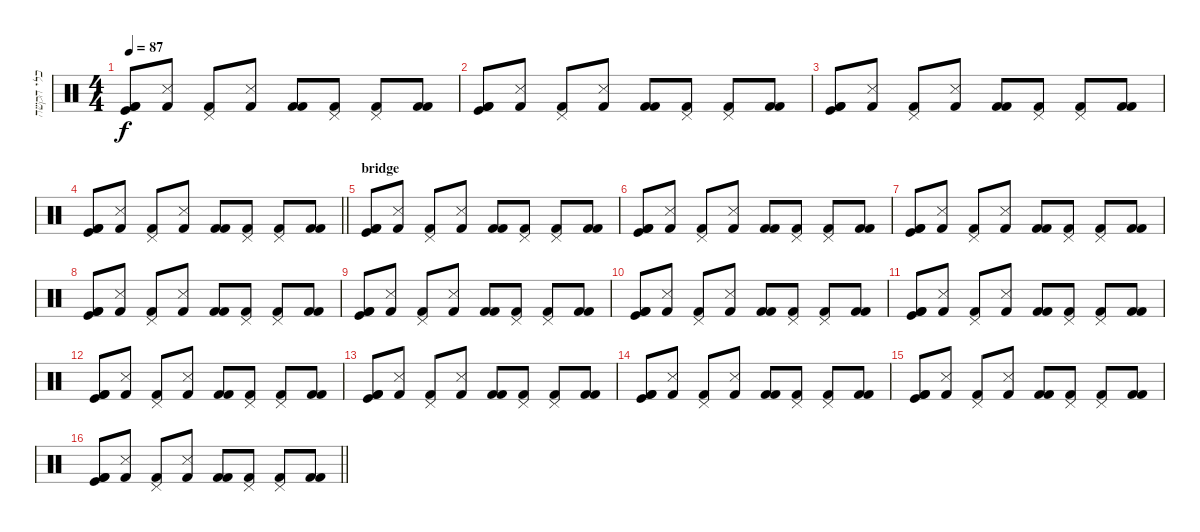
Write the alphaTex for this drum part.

\track ("כלי הקשה" "כלי הקשה") {instrument percussion}
\staff {score}
\articulation defaults
\ts (4 4)
\tempo 87
\clef neutral
\ks c
("Kick (hit) 2" "Kick (hit)" "Kick (hit) 2").8{dy f} ("Snare (side stick) 3" "Kick (hit) 2").8 ("Pedal Hi-Hat (hit)" "Kick (hit) 2").8 ("Snare (side stick) 3" "Kick (hit) 2").8 ("Kick (hit) 2" "Kick (hit) 2").8 ("Pedal Hi-Hat (hit)" "Kick (hit) 2").8 ("Pedal Hi-Hat (hit)" "Kick (hit) 2").8 ("Kick (hit) 2" "Kick (hit) 2").8 |
("Kick (hit) 2" "Kick (hit)" "Kick (hit) 2").8 ("Snare (side stick) 3" "Kick (hit) 2").8 ("Pedal Hi-Hat (hit)" "Kick (hit) 2").8 ("Snare (side stick) 3" "Kick (hit) 2").8 ("Kick (hit) 2" "Kick (hit) 2").8 ("Pedal Hi-Hat (hit)" "Kick (hit) 2").8 ("Pedal Hi-Hat (hit)" "Kick (hit) 2").8 ("Kick (hit) 2" "Kick (hit) 2").8 |
("Kick (hit) 2" "Kick (hit)" "Kick (hit) 2").8 ("Snare (side stick) 3" "Kick (hit) 2").8 ("Pedal Hi-Hat (hit)" "Kick (hit) 2").8 ("Snare (side stick) 3" "Kick (hit) 2").8 ("Kick (hit) 2" "Kick (hit) 2").8 ("Pedal Hi-Hat (hit)" "Kick (hit) 2").8 ("Pedal Hi-Hat (hit)" "Kick (hit) 2").8 ("Kick (hit) 2" "Kick (hit) 2").8 |
\barLineRight lightlight
("Kick (hit) 2" "Kick (hit)" "Kick (hit) 2").8 ("Snare (side stick) 3" "Kick (hit) 2").8 ("Pedal Hi-Hat (hit)" "Kick (hit) 2").8 ("Snare (side stick) 3" "Kick (hit) 2").8 ("Kick (hit) 2" "Kick (hit) 2").8 ("Pedal Hi-Hat (hit)" "Kick (hit) 2").8 ("Pedal Hi-Hat (hit)" "Kick (hit) 2").8 ("Kick (hit) 2" "Kick (hit) 2").8 |
\section ("" "bridge")
("Kick (hit) 2" "Kick (hit)" "Kick (hit) 2").8 ("Snare (side stick) 3" "Kick (hit) 2").8 ("Pedal Hi-Hat (hit)" "Kick (hit) 2").8 ("Snare (side stick) 3" "Kick (hit) 2").8 ("Kick (hit) 2" "Kick (hit) 2").8 ("Pedal Hi-Hat (hit)" "Kick (hit) 2").8 ("Pedal Hi-Hat (hit)" "Kick (hit) 2").8 ("Kick (hit) 2" "Kick (hit) 2").8 |
("Kick (hit) 2" "Kick (hit)" "Kick (hit) 2").8 ("Snare (side stick) 3" "Kick (hit) 2").8 ("Pedal Hi-Hat (hit)" "Kick (hit) 2").8 ("Snare (side stick) 3" "Kick (hit) 2").8 ("Kick (hit) 2" "Kick (hit) 2").8 ("Pedal Hi-Hat (hit)" "Kick (hit) 2").8 ("Pedal Hi-Hat (hit)" "Kick (hit) 2").8 ("Kick (hit) 2" "Kick (hit) 2").8 |
("Kick (hit) 2" "Kick (hit)" "Kick (hit) 2").8 ("Snare (side stick) 3" "Kick (hit) 2").8 ("Pedal Hi-Hat (hit)" "Kick (hit) 2").8 ("Snare (side stick) 3" "Kick (hit) 2").8 ("Kick (hit) 2" "Kick (hit) 2").8 ("Pedal Hi-Hat (hit)" "Kick (hit) 2").8 ("Pedal Hi-Hat (hit)" "Kick (hit) 2").8 ("Kick (hit) 2" "Kick (hit) 2").8 |
("Kick (hit) 2" "Kick (hit)" "Kick (hit) 2").8 ("Snare (side stick) 3" "Kick (hit) 2").8 ("Pedal Hi-Hat (hit)" "Kick (hit) 2").8 ("Snare (side stick) 3" "Kick (hit) 2").8 ("Kick (hit) 2" "Kick (hit) 2").8 ("Pedal Hi-Hat (hit)" "Kick (hit) 2").8 ("Pedal Hi-Hat (hit)" "Kick (hit) 2").8 ("Kick (hit) 2" "Kick (hit) 2").8 |
("Kick (hit) 2" "Kick (hit)" "Kick (hit) 2").8 ("Snare (side stick) 3" "Kick (hit) 2").8 ("Pedal Hi-Hat (hit)" "Kick (hit) 2").8 ("Snare (side stick) 3" "Kick (hit) 2").8 ("Kick (hit) 2" "Kick (hit) 2").8 ("Pedal Hi-Hat (hit)" "Kick (hit) 2").8 ("Pedal Hi-Hat (hit)" "Kick (hit) 2").8 ("Kick (hit) 2" "Kick (hit) 2").8 |
("Kick (hit) 2" "Kick (hit)" "Kick (hit) 2").8 ("Snare (side stick) 3" "Kick (hit) 2").8 ("Pedal Hi-Hat (hit)" "Kick (hit) 2").8 ("Snare (side stick) 3" "Kick (hit) 2").8 ("Kick (hit) 2" "Kick (hit) 2").8 ("Pedal Hi-Hat (hit)" "Kick (hit) 2").8 ("Pedal Hi-Hat (hit)" "Kick (hit) 2").8 ("Kick (hit) 2" "Kick (hit) 2").8 |
("Kick (hit) 2" "Kick (hit)" "Kick (hit) 2").8 ("Snare (side stick) 3" "Kick (hit) 2").8 ("Pedal Hi-Hat (hit)" "Kick (hit) 2").8 ("Snare (side stick) 3" "Kick (hit) 2").8 ("Kick (hit) 2" "Kick (hit) 2").8 ("Pedal Hi-Hat (hit)" "Kick (hit) 2").8 ("Pedal Hi-Hat (hit)" "Kick (hit) 2").8 ("Kick (hit) 2" "Kick (hit) 2").8 |
("Kick (hit) 2" "Kick (hit)" "Kick (hit) 2").8 ("Snare (side stick) 3" "Kick (hit) 2").8 ("Pedal Hi-Hat (hit)" "Kick (hit) 2").8 ("Snare (side stick) 3" "Kick (hit) 2").8 ("Kick (hit) 2" "Kick (hit) 2").8 ("Pedal Hi-Hat (hit)" "Kick (hit) 2").8 ("Pedal Hi-Hat (hit)" "Kick (hit) 2").8 ("Kick (hit) 2" "Kick (hit) 2").8 |
("Kick (hit) 2" "Kick (hit)" "Kick (hit) 2").8 ("Snare (side stick) 3" "Kick (hit) 2").8 ("Pedal Hi-Hat (hit)" "Kick (hit) 2").8 ("Snare (side stick) 3" "Kick (hit) 2").8 ("Kick (hit) 2" "Kick (hit) 2").8 ("Pedal Hi-Hat (hit)" "Kick (hit) 2").8 ("Pedal Hi-Hat (hit)" "Kick (hit) 2").8 ("Kick (hit) 2" "Kick (hit) 2").8 |
("Kick (hit) 2" "Kick (hit)" "Kick (hit) 2").8 ("Snare (side stick) 3" "Kick (hit) 2").8 ("Pedal Hi-Hat (hit)" "Kick (hit) 2").8 ("Snare (side stick) 3" "Kick (hit) 2").8 ("Kick (hit) 2" "Kick (hit) 2").8 ("Pedal Hi-Hat (hit)" "Kick (hit) 2").8 ("Pedal Hi-Hat (hit)" "Kick (hit) 2").8 ("Kick (hit) 2" "Kick (hit) 2").8 |
("Kick (hit) 2" "Kick (hit)" "Kick (hit) 2").8 ("Snare (side stick) 3" "Kick (hit) 2").8 ("Pedal Hi-Hat (hit)" "Kick (hit) 2").8 ("Snare (side stick) 3" "Kick (hit) 2").8 ("Kick (hit) 2" "Kick (hit) 2").8 ("Pedal Hi-Hat (hit)" "Kick (hit) 2").8 ("Pedal Hi-Hat (hit)" "Kick (hit) 2").8 ("Kick (hit) 2" "Kick (hit) 2").8 |
\barLineRight lightlight
("Kick (hit) 2" "Kick (hit)" "Kick (hit) 2").8 ("Snare (side stick) 3" "Kick (hit) 2").8 ("Pedal Hi-Hat (hit)" "Kick (hit) 2").8 ("Snare (side stick) 3" "Kick (hit) 2").8 ("Kick (hit) 2" "Kick (hit) 2").8 ("Pedal Hi-Hat (hit)" "Kick (hit) 2").8 ("Pedal Hi-Hat (hit)" "Kick (hit) 2").8 ("Kick (hit) 2" "Kick (hit) 2").8
